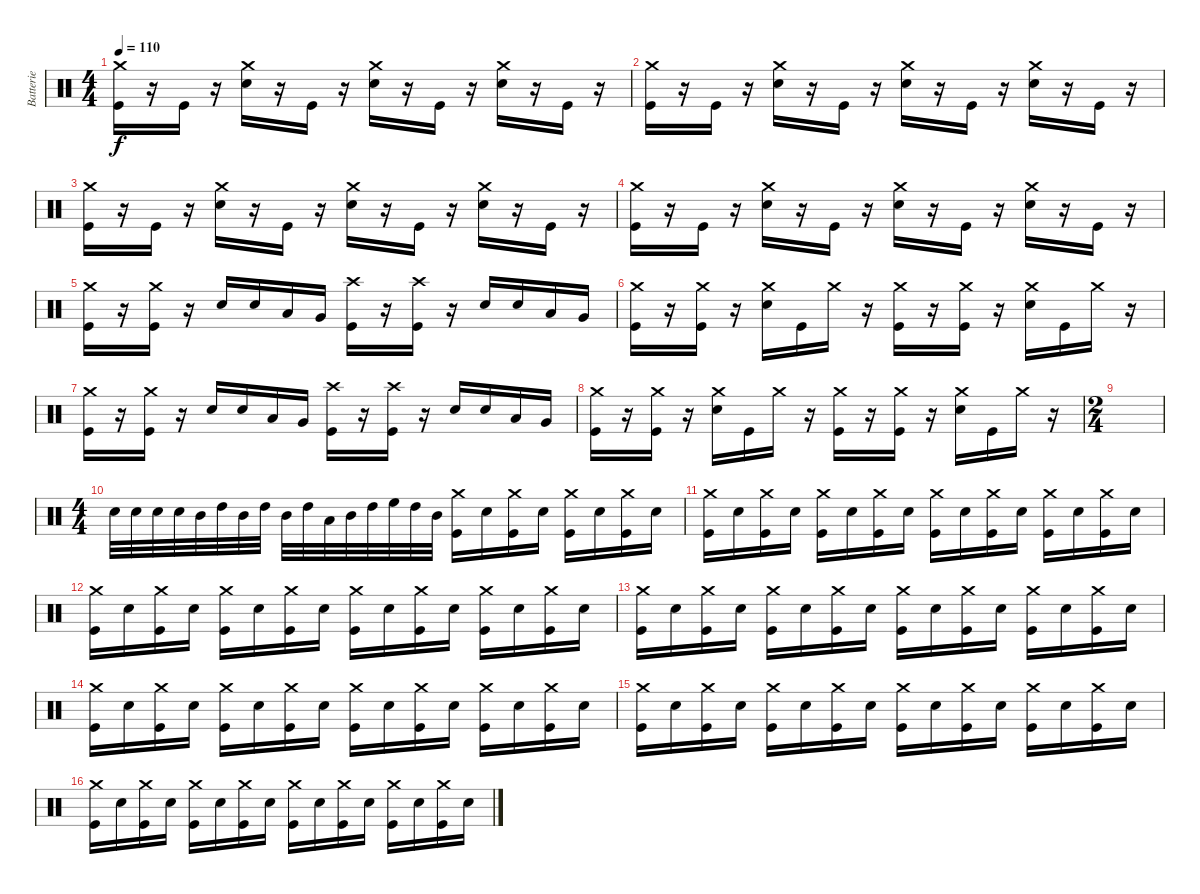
\track ("Batterie" "Batterie") {instrument percussion}
\staff {score}
\articulation defaults
\ts (4 4)
\tempo 110
\clef neutral
\ks c
("Crash medium (hit)" "Kick (hit)").16{dy f} r.16 "Kick (hit)".16 r.16 ("Crash medium (hit)" "Electric Snare (hit)").16 r.16 "Kick (hit)".16 r.16 ("Crash medium (hit)" "Electric Snare (hit)").16 r.16 "Kick (hit)".16 r.16 ("Crash medium (hit)" "Electric Snare (hit)").16 r.16 "Kick (hit)".16 r.16 |
("Crash medium (hit)" "Kick (hit)").16 r.16 "Kick (hit)".16 r.16 ("Crash medium (hit)" "Electric Snare (hit)").16 r.16 "Kick (hit)".16 r.16 ("Crash medium (hit)" "Electric Snare (hit)").16 r.16 "Kick (hit)".16 r.16 ("Crash medium (hit)" "Electric Snare (hit)").16 r.16 "Kick (hit)".16 r.16 |
("Crash medium (hit)" "Kick (hit)").16 r.16 "Kick (hit)".16 r.16 ("Crash medium (hit)" "Electric Snare (hit)").16 r.16 "Kick (hit)".16 r.16 ("Crash medium (hit)" "Electric Snare (hit)").16 r.16 "Kick (hit)".16 r.16 ("Crash medium (hit)" "Electric Snare (hit)").16 r.16 "Kick (hit)".16 r.16 |
("Crash medium (hit)" "Kick (hit)").16 r.16 "Kick (hit)".16 r.16 ("Crash medium (hit)" "Electric Snare (hit)").16 r.16 "Kick (hit)".16 r.16 ("Crash medium (hit)" "Electric Snare (hit)").16 r.16 "Kick (hit)".16 r.16 ("Crash medium (hit)" "Electric Snare (hit)").16 r.16 "Kick (hit)".16 r.16 |
("Crash medium (hit)" "Kick (hit)").16 r.16 ("Crash medium (hit)" "Kick (hit)").16 r.16 "Electric Snare (hit)".16 "Electric Snare (hit)".16 "Low Tom (hit)".16 "Very Low Tom (hit)".16 ("Crash high (hit)" "Kick (hit)").16 r.16 ("Crash high (hit)" "Kick (hit)").16 r.16 "Electric Snare (hit)".16 "Electric Snare (hit)".16 "Low Tom (hit)".16 "Very Low Tom (hit)".16 |
("Crash medium (hit)" "Kick (hit)").16 r.16 ("Crash medium (hit)" "Kick (hit)").16 r.16 ("Crash medium (hit)" "Electric Snare (hit)").16 "Kick (hit)".16 "Crash medium (hit)".16 r.16 ("Crash medium (hit)" "Kick (hit)").16 r.16 ("Crash medium (hit)" "Kick (hit)").16 r.16 ("Crash medium (hit)" "Electric Snare (hit)").16 "Kick (hit)".16 "Crash medium (hit)".16 r.16 |
("Crash medium (hit)" "Kick (hit)").16 r.16 ("Crash medium (hit)" "Kick (hit)").16 r.16 "Electric Snare (hit)".16 "Electric Snare (hit)".16 "Low Tom (hit)".16 "Very Low Tom (hit)".16 ("Crash high (hit)" "Kick (hit)").16 r.16 ("Crash high (hit)" "Kick (hit)").16 r.16 "Electric Snare (hit)".16 "Electric Snare (hit)".16 "Low Tom (hit)".16 "Very Low Tom (hit)".16 |
("Crash medium (hit)" "Kick (hit)").16 r.16 ("Crash medium (hit)" "Kick (hit)").16 r.16 ("Crash medium (hit)" "Electric Snare (hit)").16 "Kick (hit)".16 "Crash medium (hit)".16 r.16 ("Crash medium (hit)" "Kick (hit)").16 r.16 ("Crash medium (hit)" "Kick (hit)").16 r.16 ("Crash medium (hit)" "Electric Snare (hit)").16 "Kick (hit)".16 "Crash medium (hit)".16 r.16 |
\ts (2 4)
|
\ts (4 4)
"Electric Snare (hit)".32 "Electric Snare (hit)".32 "Electric Snare (hit)".32 "Electric Snare (hit)".32 "Mid Tom (hit)".32 "High Tom (hit)".32 "Mid Tom (hit)".32 "High Tom (hit)".32 "Mid Tom (hit)".32 "High Tom (hit)".32 "Low Tom (hit)".32 "Mid Tom (hit)".32 "High Tom (hit)".32 "High Floor Tom (hit)".32 "High Tom (hit)".32 "Mid Tom (hit)".32 ("Crash medium (hit)" "Kick (hit)").16 "Electric Snare (hit)".16 ("Crash medium (hit)" "Kick (hit)").16 "Electric Snare (hit)".16 ("Crash medium (hit)" "Kick (hit)").16 "Electric Snare (hit)".16 ("Crash medium (hit)" "Kick (hit)").16 "Electric Snare (hit)".16 |
("Crash medium (hit)" "Kick (hit)").16 "Electric Snare (hit)".16 ("Crash medium (hit)" "Kick (hit)").16 "Electric Snare (hit)".16 ("Crash medium (hit)" "Kick (hit)").16 "Electric Snare (hit)".16 ("Crash medium (hit)" "Kick (hit)").16 "Electric Snare (hit)".16 ("Crash medium (hit)" "Kick (hit)").16 "Electric Snare (hit)".16 ("Crash medium (hit)" "Kick (hit)").16 "Electric Snare (hit)".16 ("Crash medium (hit)" "Kick (hit)").16 "Electric Snare (hit)".16 ("Crash medium (hit)" "Kick (hit)").16 "Electric Snare (hit)".16 |
("Crash medium (hit)" "Kick (hit)").16 "Electric Snare (hit)".16 ("Crash medium (hit)" "Kick (hit)").16 "Electric Snare (hit)".16 ("Crash medium (hit)" "Kick (hit)").16 "Electric Snare (hit)".16 ("Crash medium (hit)" "Kick (hit)").16 "Electric Snare (hit)".16 ("Crash medium (hit)" "Kick (hit)").16 "Electric Snare (hit)".16 ("Crash medium (hit)" "Kick (hit)").16 "Electric Snare (hit)".16 ("Crash medium (hit)" "Kick (hit)").16 "Electric Snare (hit)".16 ("Crash medium (hit)" "Kick (hit)").16 "Electric Snare (hit)".16 |
("Crash medium (hit)" "Kick (hit)").16 "Electric Snare (hit)".16 ("Crash medium (hit)" "Kick (hit)").16 "Electric Snare (hit)".16 ("Crash medium (hit)" "Kick (hit)").16 "Electric Snare (hit)".16 ("Crash medium (hit)" "Kick (hit)").16 "Electric Snare (hit)".16 ("Crash medium (hit)" "Kick (hit)").16 "Electric Snare (hit)".16 ("Crash medium (hit)" "Kick (hit)").16 "Electric Snare (hit)".16 ("Crash medium (hit)" "Kick (hit)").16 "Electric Snare (hit)".16 ("Crash medium (hit)" "Kick (hit)").16 "Electric Snare (hit)".16 |
("Crash medium (hit)" "Kick (hit)").16 "Electric Snare (hit)".16 ("Crash medium (hit)" "Kick (hit)").16 "Electric Snare (hit)".16 ("Crash medium (hit)" "Kick (hit)").16 "Electric Snare (hit)".16 ("Crash medium (hit)" "Kick (hit)").16 "Electric Snare (hit)".16 ("Crash medium (hit)" "Kick (hit)").16 "Electric Snare (hit)".16 ("Crash medium (hit)" "Kick (hit)").16 "Electric Snare (hit)".16 ("Crash medium (hit)" "Kick (hit)").16 "Electric Snare (hit)".16 ("Crash medium (hit)" "Kick (hit)").16 "Electric Snare (hit)".16 |
("Crash medium (hit)" "Kick (hit)").16 "Electric Snare (hit)".16 ("Crash medium (hit)" "Kick (hit)").16 "Electric Snare (hit)".16 ("Crash medium (hit)" "Kick (hit)").16 "Electric Snare (hit)".16 ("Crash medium (hit)" "Kick (hit)").16 "Electric Snare (hit)".16 ("Crash medium (hit)" "Kick (hit)").16 "Electric Snare (hit)".16 ("Crash medium (hit)" "Kick (hit)").16 "Electric Snare (hit)".16 ("Crash medium (hit)" "Kick (hit)").16 "Electric Snare (hit)".16 ("Crash medium (hit)" "Kick (hit)").16 "Electric Snare (hit)".16 |
("Crash medium (hit)" "Kick (hit)").16 "Electric Snare (hit)".16 ("Crash medium (hit)" "Kick (hit)").16 "Electric Snare (hit)".16 ("Crash medium (hit)" "Kick (hit)").16 "Electric Snare (hit)".16 ("Crash medium (hit)" "Kick (hit)").16 "Electric Snare (hit)".16 ("Crash medium (hit)" "Kick (hit)").16 "Electric Snare (hit)".16 ("Crash medium (hit)" "Kick (hit)").16 "Electric Snare (hit)".16 ("Crash medium (hit)" "Kick (hit)").16 "Electric Snare (hit)".16 ("Crash medium (hit)" "Kick (hit)").16 "Electric Snare (hit)".16
